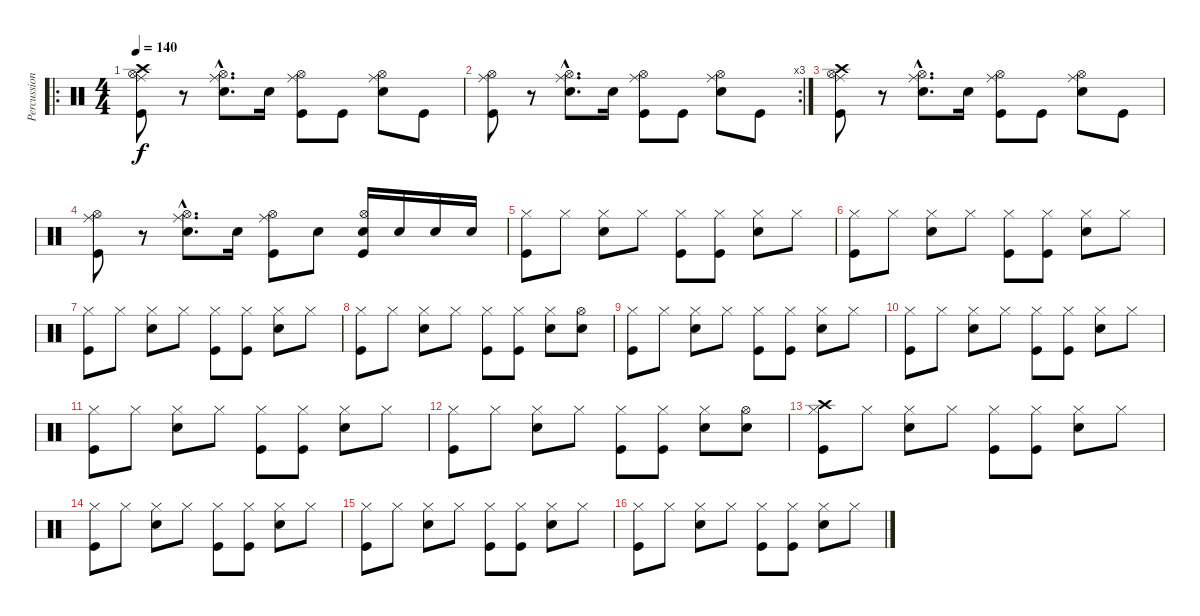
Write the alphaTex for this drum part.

\track ("Percussion" "Percussion") {instrument percussion}
\staff {score}
\articulation defaults
\ro
\ts (4 4)
\tempo 140
\clef neutral
\ks c
("Kick (hit)" "Ride (middle)" "Hi-Hat (open)" "Crash high (hit)").8{dy f} r.8 ("Snare (hit) 2"{hac} "Ride (middle)"{hac} "Hi-Hat (open)"{hac}).8{d} "Snare (hit) 2".16 ("Kick (hit)" "Ride (middle)" "Hi-Hat (open)").8 "Kick (hit)".8 ("Snare (hit) 2" "Ride (middle)" "Hi-Hat (open)").8 "Kick (hit)".8 |
\rc 3
("Kick (hit)" "Ride (middle)" "Hi-Hat (open)").8 r.8 ("Snare (hit) 2"{hac} "Ride (middle)"{hac} "Hi-Hat (open)"{hac}).8{d} "Snare (hit) 2".16 ("Kick (hit)" "Ride (middle)" "Hi-Hat (open)").8 "Kick (hit)".8 ("Snare (hit) 2" "Ride (middle)" "Hi-Hat (open)").8 "Kick (hit)".8 |
("Kick (hit)" "Ride (middle)" "Hi-Hat (open)" "Crash high (hit)").8 r.8 ("Snare (hit) 2"{hac} "Ride (middle)"{hac} "Hi-Hat (open)"{hac}).8{d} "Snare (hit) 2".16 ("Kick (hit)" "Ride (middle)" "Hi-Hat (open)").8 "Kick (hit)".8 ("Snare (hit) 2" "Ride (middle)" "Hi-Hat (open)").8 "Kick (hit)".8 |
("Kick (hit)" "Ride (middle)" "Hi-Hat (open)").8 r.8 ("Snare (hit) 2"{hac} "Ride (middle)"{hac} "Hi-Hat (open)"{hac}).8{d} "Snare (hit) 2".16 ("Kick (hit)" "Ride (middle)" "Hi-Hat (open)").8 "Snare (hit) 2".8 ("Snare (hit) 2" "Kick (hit)" "Hi-Hat (open)").16 "Snare (hit) 2".16 "Snare (hit) 2".16 "Snare (hit) 2".16 |
("Kick (hit)" "Hi-Hat (closed)").8 "Hi-Hat (closed)".8 ("Snare (hit) 2" "Hi-Hat (closed)").8 "Hi-Hat (closed)".8 ("Kick (hit)" "Hi-Hat (closed)").8 ("Kick (hit)" "Hi-Hat (closed)").8 ("Snare (hit) 2" "Hi-Hat (closed)").8 "Hi-Hat (closed)".8 |
("Kick (hit)" "Hi-Hat (closed)").8 "Hi-Hat (closed)".8 ("Snare (hit) 2" "Hi-Hat (closed)").8 "Hi-Hat (closed)".8 ("Kick (hit)" "Hi-Hat (closed)").8 ("Kick (hit)" "Hi-Hat (closed)").8 ("Snare (hit) 2" "Hi-Hat (closed)").8 "Hi-Hat (closed)".8 |
("Kick (hit)" "Hi-Hat (closed)").8 "Hi-Hat (closed)".8 ("Snare (hit) 2" "Hi-Hat (closed)").8 "Hi-Hat (closed)".8 ("Kick (hit)" "Hi-Hat (closed)").8 ("Kick (hit)" "Hi-Hat (closed)").8 ("Snare (hit) 2" "Hi-Hat (closed)").8 "Hi-Hat (closed)".8 |
("Kick (hit)" "Hi-Hat (closed)").8 "Hi-Hat (closed)".8 ("Snare (hit) 2" "Hi-Hat (closed)").8 "Hi-Hat (closed)".8 ("Kick (hit)" "Hi-Hat (closed)").8 ("Kick (hit)" "Hi-Hat (closed)").8 ("Snare (hit) 2" "Hi-Hat (closed)").8 ("Snare (hit) 2" "Hi-Hat (open)").8 |
("Kick (hit)" "Hi-Hat (closed)").8 "Hi-Hat (closed)".8 ("Snare (hit) 2" "Hi-Hat (closed)").8 "Hi-Hat (closed)".8 ("Kick (hit)" "Hi-Hat (closed)").8 ("Kick (hit)" "Hi-Hat (closed)").8 ("Snare (hit) 2" "Hi-Hat (closed)").8 "Hi-Hat (closed)".8 |
("Kick (hit)" "Hi-Hat (closed)").8 "Hi-Hat (closed)".8 ("Snare (hit) 2" "Hi-Hat (closed)").8 "Hi-Hat (closed)".8 ("Kick (hit)" "Hi-Hat (closed)").8 ("Kick (hit)" "Hi-Hat (closed)").8 ("Snare (hit) 2" "Hi-Hat (closed)").8 "Hi-Hat (closed)".8 |
("Kick (hit)" "Hi-Hat (closed)").8 "Hi-Hat (closed)".8 ("Snare (hit) 2" "Hi-Hat (closed)").8 "Hi-Hat (closed)".8 ("Kick (hit)" "Hi-Hat (closed)").8 ("Kick (hit)" "Hi-Hat (closed)").8 ("Snare (hit) 2" "Hi-Hat (closed)").8 "Hi-Hat (closed)".8 |
("Kick (hit)" "Hi-Hat (closed)").8 "Hi-Hat (closed)".8 ("Snare (hit) 2" "Hi-Hat (closed)").8 "Hi-Hat (closed)".8 ("Kick (hit)" "Hi-Hat (closed)").8 ("Kick (hit)" "Hi-Hat (closed)").8 ("Snare (hit) 2" "Hi-Hat (closed)").8 ("Snare (hit) 2" "Hi-Hat (open)").8 |
("Kick (hit)" "Hi-Hat (closed)" "Crash high (hit)").8 "Hi-Hat (closed)".8 ("Snare (hit) 2" "Hi-Hat (closed)").8 "Hi-Hat (closed)".8 ("Kick (hit)" "Hi-Hat (closed)").8 ("Kick (hit)" "Hi-Hat (closed)").8 ("Snare (hit) 2" "Hi-Hat (closed)").8 "Hi-Hat (closed)".8 |
("Kick (hit)" "Hi-Hat (closed)").8 "Hi-Hat (closed)".8 ("Snare (hit) 2" "Hi-Hat (closed)").8 "Hi-Hat (closed)".8 ("Kick (hit)" "Hi-Hat (closed)").8 ("Kick (hit)" "Hi-Hat (closed)").8 ("Snare (hit) 2" "Hi-Hat (closed)").8 "Hi-Hat (closed)".8 |
("Kick (hit)" "Hi-Hat (closed)").8 "Hi-Hat (closed)".8 ("Snare (hit) 2" "Hi-Hat (closed)").8 "Hi-Hat (closed)".8 ("Kick (hit)" "Hi-Hat (closed)").8 ("Kick (hit)" "Hi-Hat (closed)").8 ("Snare (hit) 2" "Hi-Hat (closed)").8 "Hi-Hat (closed)".8 |
("Kick (hit)" "Hi-Hat (closed)").8 "Hi-Hat (closed)".8 ("Snare (hit) 2" "Hi-Hat (closed)").8 "Hi-Hat (closed)".8 ("Kick (hit)" "Hi-Hat (closed)").8 ("Kick (hit)" "Hi-Hat (closed)").8 ("Snare (hit) 2" "Hi-Hat (closed)").8 "Hi-Hat (closed)".8
